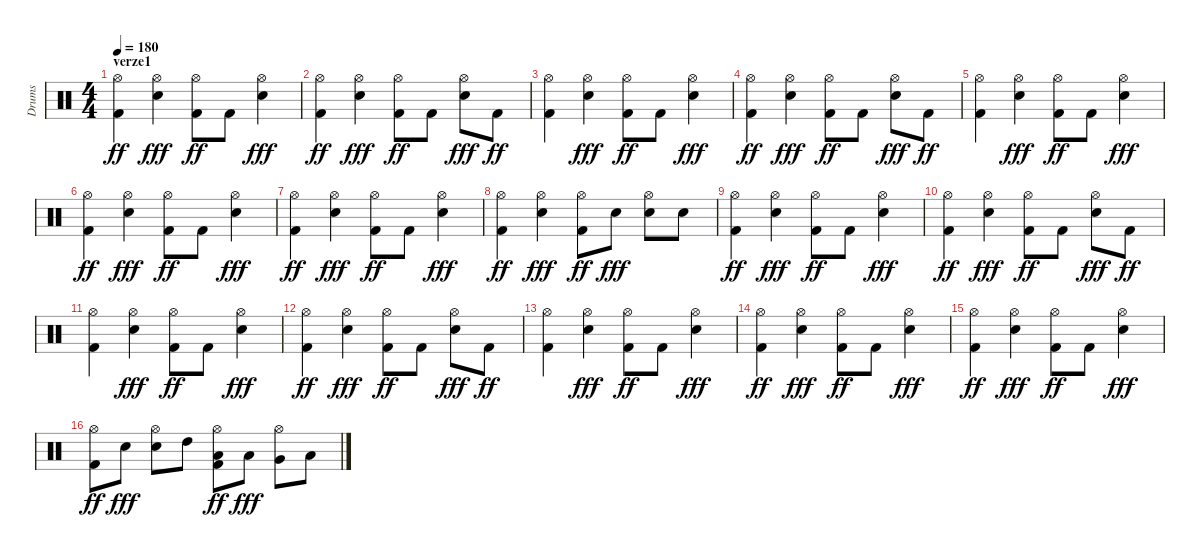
\track ("Drums" "Drums") {instrument percussion}
\staff {score}
\articulation defaults
\ts (4 4)
\section ("" "verze1")
\tempo 180
\clef neutral
\ks c
("Hi-Hat (open)" "Kick (hit) 2").4{dy ff} ("Hi-Hat (open)" "Snare (hit) 2").4{dy fff} ("Hi-Hat (open)" "Kick (hit) 2").8{dy ff} "Kick (hit) 2".8 ("Hi-Hat (open)" "Snare (hit) 2").4{dy fff} |
("Hi-Hat (open)" "Kick (hit) 2").4{dy ff} ("Hi-Hat (open)" "Snare (hit) 2").4{dy fff} ("Hi-Hat (open)" "Kick (hit) 2").8{dy ff} "Kick (hit) 2".8 ("Hi-Hat (open)" "Snare (hit) 2").8{dy fff} "Kick (hit) 2".8{dy ff} |
("Hi-Hat (open)" "Kick (hit) 2").4 ("Hi-Hat (open)" "Snare (hit) 2").4{dy fff} ("Hi-Hat (open)" "Kick (hit) 2").8{dy ff} "Kick (hit) 2".8 ("Hi-Hat (open)" "Snare (hit) 2").4{dy fff} |
("Hi-Hat (open)" "Kick (hit) 2").4{dy ff} ("Hi-Hat (open)" "Snare (hit) 2").4{dy fff} ("Hi-Hat (open)" "Kick (hit) 2").8{dy ff} "Kick (hit) 2".8 ("Hi-Hat (open)" "Snare (hit) 2").8{dy fff} "Kick (hit) 2".8{dy ff} |
("Hi-Hat (open)" "Kick (hit) 2").4 ("Hi-Hat (open)" "Snare (hit) 2").4{dy fff} ("Hi-Hat (open)" "Kick (hit) 2").8{dy ff} "Kick (hit) 2".8 ("Hi-Hat (open)" "Snare (hit) 2").4{dy fff} |
("Hi-Hat (open)" "Kick (hit) 2").4{dy ff} ("Hi-Hat (open)" "Snare (hit) 2").4{dy fff} ("Hi-Hat (open)" "Kick (hit) 2").8{dy ff} "Kick (hit) 2".8 ("Hi-Hat (open)" "Snare (hit) 2").4{dy fff} |
("Hi-Hat (open)" "Kick (hit) 2").4{dy ff} ("Hi-Hat (open)" "Snare (hit) 2").4{dy fff} ("Hi-Hat (open)" "Kick (hit) 2").8{dy ff} "Kick (hit) 2".8 ("Hi-Hat (open)" "Snare (hit) 2").4{dy fff} |
("Hi-Hat (open)" "Kick (hit) 2").4{dy ff} ("Hi-Hat (open)" "Snare (hit) 2").4{dy fff} ("Hi-Hat (open)" "Kick (hit) 2").8{dy ff} "Snare (hit) 2".8{dy fff} ("Hi-Hat (open)" "Snare (hit) 2").8 "Snare (hit) 2".8 |
("Hi-Hat (open)" "Kick (hit) 2").4{dy ff} ("Hi-Hat (open)" "Snare (hit) 2").4{dy fff} ("Hi-Hat (open)" "Kick (hit) 2").8{dy ff} "Kick (hit) 2".8 ("Hi-Hat (open)" "Snare (hit) 2").4{dy fff} |
("Hi-Hat (open)" "Kick (hit) 2").4{dy ff} ("Hi-Hat (open)" "Snare (hit) 2").4{dy fff} ("Hi-Hat (open)" "Kick (hit) 2").8{dy ff} "Kick (hit) 2".8 ("Hi-Hat (open)" "Snare (hit) 2").8{dy fff} "Kick (hit) 2".8{dy ff} |
("Hi-Hat (open)" "Kick (hit) 2").4 ("Hi-Hat (open)" "Snare (hit) 2").4{dy fff} ("Hi-Hat (open)" "Kick (hit) 2").8{dy ff} "Kick (hit) 2".8 ("Hi-Hat (open)" "Snare (hit) 2").4{dy fff} |
("Hi-Hat (open)" "Kick (hit) 2").4{dy ff} ("Hi-Hat (open)" "Snare (hit) 2").4{dy fff} ("Hi-Hat (open)" "Kick (hit) 2").8{dy ff} "Kick (hit) 2".8 ("Hi-Hat (open)" "Snare (hit) 2").8{dy fff} "Kick (hit) 2".8{dy ff} |
("Hi-Hat (open)" "Kick (hit) 2").4 ("Hi-Hat (open)" "Snare (hit) 2").4{dy fff} ("Hi-Hat (open)" "Kick (hit) 2").8{dy ff} "Kick (hit) 2".8 ("Hi-Hat (open)" "Snare (hit) 2").4{dy fff} |
("Hi-Hat (open)" "Kick (hit) 2").4{dy ff} ("Hi-Hat (open)" "Snare (hit) 2").4{dy fff} ("Hi-Hat (open)" "Kick (hit) 2").8{dy ff} "Kick (hit) 2".8 ("Hi-Hat (open)" "Snare (hit) 2").4{dy fff} |
("Hi-Hat (open)" "Kick (hit) 2").4{dy ff} ("Hi-Hat (open)" "Snare (hit) 2").4{dy fff} ("Hi-Hat (open)" "Kick (hit) 2").8{dy ff} "Kick (hit) 2".8 ("Hi-Hat (open)" "Snare (hit) 2").4{dy fff} |
("Hi-Hat (open)" "Kick (hit) 2").8{dy ff} "Snare (hit) 2".8{dy fff} ("Hi-Hat (open)" "Snare (hit) 2").8 "High Tom (hit)".8 ("Hi-Hat (open)" "Low Tom (hit)" "Kick (hit) 2").8{dy ff} "Low Tom (hit)".8{dy fff} ("Hi-Hat (open)" "Very Low Tom (hit)").8 "Low Floor Tom (hit)".8
